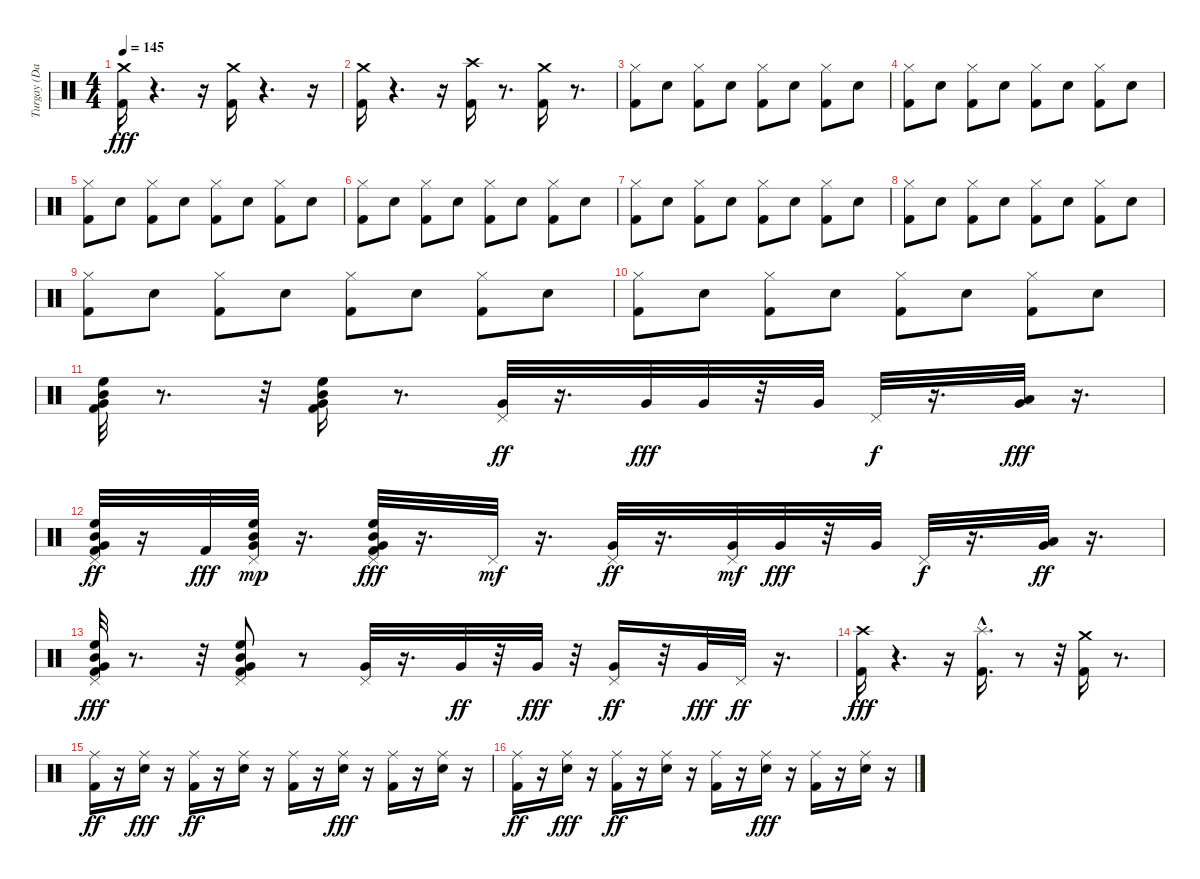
\track ("Turgay (Davul)" "Turgay (Da") {instrument percussion}
\staff {score}
\articulation defaults
\ts (4 4)
\tempo 145
\clef neutral
\ks c
("Crash medium (hit)" "Kick (hit) 2").16{dy fff} r.4{d} r.16 ("Crash medium (hit)" "Kick (hit) 2").16 r.4{d} r.16 |
("Crash medium (hit)" "Kick (hit) 2").16 r.4{d} r.16 ("Kick (hit) 2" "Crash high (hit)").16 r.8{d} ("Kick (hit) 2" "Crash medium (hit)").16 r.8{d} |
("Kick (hit) 2" "Hi-Hat (closed)").8 "Electric Snare (hit)".8 ("Kick (hit) 2" "Hi-Hat (closed)").8 "Electric Snare (hit)".8 ("Kick (hit) 2" "Hi-Hat (closed)").8 "Electric Snare (hit)".8 ("Kick (hit) 2" "Hi-Hat (closed)").8 "Electric Snare (hit)".8 |
("Kick (hit) 2" "Hi-Hat (closed)").8 "Electric Snare (hit)".8 ("Kick (hit) 2" "Hi-Hat (closed)").8 "Electric Snare (hit)".8 ("Kick (hit) 2" "Hi-Hat (closed)").8 "Electric Snare (hit)".8 ("Kick (hit) 2" "Hi-Hat (closed)").8 "Electric Snare (hit)".8 |
("Hi-Hat (closed)" "Kick (hit) 2").8 "Electric Snare (hit)".8 ("Hi-Hat (closed)" "Kick (hit) 2").8 "Electric Snare (hit)".8 ("Hi-Hat (closed)" "Kick (hit) 2").8 "Electric Snare (hit)".8 ("Hi-Hat (closed)" "Kick (hit) 2").8 "Electric Snare (hit)".8 |
("Kick (hit) 2" "Hi-Hat (closed)").8 "Electric Snare (hit)".8 ("Kick (hit) 2" "Hi-Hat (closed)").8 "Electric Snare (hit)".8 ("Kick (hit) 2" "Hi-Hat (closed)").8 "Electric Snare (hit)".8 ("Kick (hit) 2" "Hi-Hat (closed)").8 "Electric Snare (hit)".8 |
("Hi-Hat (closed)" "Kick (hit) 2").8 "Electric Snare (hit)".8 ("Hi-Hat (closed)" "Kick (hit) 2").8 "Electric Snare (hit)".8 ("Hi-Hat (closed)" "Kick (hit) 2").8 "Electric Snare (hit)".8 ("Hi-Hat (closed)" "Kick (hit) 2").8 "Electric Snare (hit)".8 |
("Kick (hit) 2" "Hi-Hat (closed)").8 "Electric Snare (hit)".8 ("Kick (hit) 2" "Hi-Hat (closed)").8 "Electric Snare (hit)".8 ("Kick (hit) 2" "Hi-Hat (closed)").8 "Electric Snare (hit)".8 ("Kick (hit) 2" "Hi-Hat (closed)").8 "Electric Snare (hit)".8 |
("Hi-Hat (closed)" "Kick (hit) 2").8 "Electric Snare (hit)".8 ("Hi-Hat (closed)" "Kick (hit) 2").8 "Electric Snare (hit)".8 ("Hi-Hat (closed)" "Kick (hit) 2").8 "Electric Snare (hit)".8 ("Hi-Hat (closed)" "Kick (hit) 2").8 "Electric Snare (hit)".8 |
("Hi-Hat (closed)" "Kick (hit) 2").8 "Electric Snare (hit)".8 ("Hi-Hat (closed)" "Kick (hit) 2").8 "Electric Snare (hit)".8 ("Hi-Hat (closed)" "Kick (hit) 2").8 "Electric Snare (hit)".8 ("Hi-Hat (closed)" "Kick (hit) 2").8 "Electric Snare (hit)".8 |
("Mid Tom (hit)" "Very Low Tom (hit)" "High Floor Tom (hit)" "Kick (hit) 2").32 r.8{d} r.32 ("Kick (hit) 2" "Mid Tom (hit)" "Very Low Tom (hit)" "High Floor Tom (hit)").16 r.8{d} ("Very Low Tom (hit)" "Pedal Hi-Hat (hit)").32{dy ff} r.16{d} "Very Low Tom (hit)".32{dy fff} "Very Low Tom (hit)".32 r.32 "Very Low Tom (hit)".32 "Pedal Hi-Hat (hit)".32{dy f} r.16{d} ("Very Low Tom (hit)" "Low Floor Tom (hit)").32{dy fff} r.16{d} |
("Kick (hit) 2" "Mid Tom (hit)" "High Floor Tom (hit)" "Pedal Hi-Hat (hit)" "Very Low Tom (hit)").32{dy ff} r.16 "Kick (hit) 2".32{dy fff} ("Very Low Tom (hit)" "Mid Tom (hit)" "High Floor Tom (hit)" "Pedal Hi-Hat (hit)").32{dy mp} r.16{d} ("Kick (hit) 2" "Mid Tom (hit)" "Very Low Tom (hit)" "High Floor Tom (hit)" "Pedal Hi-Hat (hit)").32{dy fff} r.16{d} "Pedal Hi-Hat (hit)".32{dy mf} r.16{d} ("Very Low Tom (hit)" "Pedal Hi-Hat (hit)").32{dy ff} r.16{d} ("Very Low Tom (hit)" "Pedal Hi-Hat (hit)").32{dy mf} "Very Low Tom (hit)".32{dy fff} r.32 "Very Low Tom (hit)".32 "Pedal Hi-Hat (hit)".32{dy f} r.16{d} ("Very Low Tom (hit)" "Low Floor Tom (hit)").32{dy ff} r.16{d} |
("Pedal Hi-Hat (hit)" "Mid Tom (hit)" "High Floor Tom (hit)" "Very Low Tom (hit)" "Kick (hit) 2").32{dy fff} r.8{d} r.32 ("Pedal Hi-Hat (hit)" "Kick (hit) 2" "Very Low Tom (hit)" "Mid Tom (hit)" "High Floor Tom (hit)").8 r.8 ("Pedal Hi-Hat (hit)" "Very Low Tom (hit)").32 r.16{d} "Very Low Tom (hit)".32{dy ff} r.32 "Very Low Tom (hit)".32{dy fff} r.32 ("Very Low Tom (hit)" "Pedal Hi-Hat (hit)").16{dy ff} r.32 "Very Low Tom (hit)".32{dy fff} "Pedal Hi-Hat (hit)".32{dy ff} r.16{d} |
("Crash high (hit)" "Kick (hit) 2").16{dy fff} r.4{d} r.16 ("Splash (hit)" "Kick (hit) 2"{hac}).16{d} r.8 r.32 ("Kick (hit) 2" "Crash medium (hit)").16 r.8{d} |
("Ride (middle)" "Kick (hit) 2").16{dy ff} r.16 ("Electric Snare (hit)" "Ride (middle)").16{dy fff} r.16 ("Kick (hit) 2" "Ride (middle)").16{dy ff} r.16 ("Electric Snare (hit)" "Ride (middle)").16 r.16 ("Kick (hit) 2" "Ride (middle)").16 r.16 ("Electric Snare (hit)" "Ride (middle)").16{dy fff} r.16 ("Kick (hit) 2" "Ride (middle)").16 r.16 ("Electric Snare (hit)" "Ride (middle)").16 r.16 |
("Ride (middle)" "Kick (hit) 2").16{dy ff} r.16 ("Electric Snare (hit)" "Ride (middle)").16{dy fff} r.16 ("Kick (hit) 2" "Ride (middle)").16{dy ff} r.16 ("Electric Snare (hit)" "Ride (middle)").16 r.16 ("Kick (hit) 2" "Ride (middle)").16 r.16 ("Electric Snare (hit)" "Ride (middle)").16{dy fff} r.16 ("Kick (hit) 2" "Ride (middle)").16 r.16 ("Electric Snare (hit)" "Ride (middle)").16 r.16
